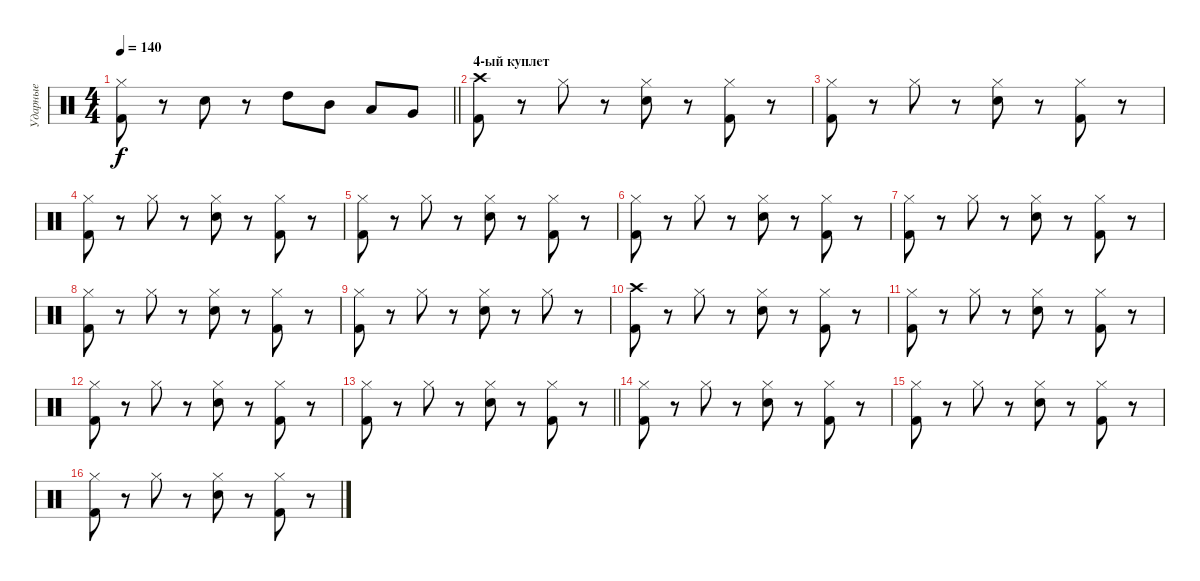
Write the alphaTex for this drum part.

\track ("Ударные" "Ударные") {instrument percussion}
\staff {score}
\articulation defaults
\ts (4 4)
\tempo 140
\clef neutral
\barLineRight lightlight
\ks c
("Kick (hit) 2" "Hi-Hat (closed)").8{dy f} r.8 "Electric Snare (hit)".8 r.8 "High Tom (hit)".8 "Mid Tom (hit)".8 "Low Tom (hit)".8 "Very Low Tom (hit)".8 |
\section ("" "4-ый куплет")
("Kick (hit) 2" "Crash high (hit)").8 r.8 "Hi-Hat (closed)".8 r.8 ("Electric Snare (hit)" "Hi-Hat (closed)").8 r.8 ("Hi-Hat (closed)" "Kick (hit) 2").8 r.8 |
("Kick (hit) 2" "Hi-Hat (closed)").8 r.8 "Hi-Hat (closed)".8 r.8 ("Electric Snare (hit)" "Hi-Hat (closed)").8 r.8 ("Hi-Hat (closed)" "Kick (hit) 2").8 r.8 |
("Kick (hit) 2" "Hi-Hat (closed)").8 r.8 "Hi-Hat (closed)".8 r.8 ("Electric Snare (hit)" "Hi-Hat (closed)").8 r.8 ("Hi-Hat (closed)" "Kick (hit) 2").8 r.8 |
("Kick (hit) 2" "Hi-Hat (closed)").8 r.8 "Hi-Hat (closed)".8 r.8 ("Electric Snare (hit)" "Hi-Hat (closed)").8 r.8 ("Hi-Hat (closed)" "Kick (hit) 2").8 r.8 |
("Kick (hit) 2" "Hi-Hat (closed)").8 r.8 "Hi-Hat (closed)".8 r.8 ("Electric Snare (hit)" "Hi-Hat (closed)").8 r.8 ("Hi-Hat (closed)" "Kick (hit) 2").8 r.8 |
("Kick (hit) 2" "Hi-Hat (closed)").8 r.8 "Hi-Hat (closed)".8 r.8 ("Electric Snare (hit)" "Hi-Hat (closed)").8 r.8 ("Hi-Hat (closed)" "Kick (hit) 2").8 r.8 |
("Kick (hit) 2" "Hi-Hat (closed)").8 r.8 "Hi-Hat (closed)".8 r.8 ("Electric Snare (hit)" "Hi-Hat (closed)").8 r.8 ("Hi-Hat (closed)" "Kick (hit) 2").8 r.8 |
("Kick (hit) 2" "Hi-Hat (closed)").8 r.8 "Hi-Hat (closed)".8 r.8 ("Electric Snare (hit)" "Hi-Hat (closed)").8 r.8 "Hi-Hat (closed)".8 r.8 |
("Kick (hit) 2" "Crash high (hit)").8 r.8 "Hi-Hat (closed)".8 r.8 ("Electric Snare (hit)" "Hi-Hat (closed)").8 r.8 ("Hi-Hat (closed)" "Kick (hit) 2").8 r.8 |
("Kick (hit) 2" "Hi-Hat (closed)").8 r.8 "Hi-Hat (closed)".8 r.8 ("Electric Snare (hit)" "Hi-Hat (closed)").8 r.8 ("Hi-Hat (closed)" "Kick (hit) 2").8 r.8 |
("Kick (hit) 2" "Hi-Hat (closed)").8 r.8 "Hi-Hat (closed)".8 r.8 ("Electric Snare (hit)" "Hi-Hat (closed)").8 r.8 ("Hi-Hat (closed)" "Kick (hit) 2").8 r.8 |
\barLineRight lightlight
("Kick (hit) 2" "Hi-Hat (closed)").8 r.8 "Hi-Hat (closed)".8 r.8 ("Electric Snare (hit)" "Hi-Hat (closed)").8 r.8 ("Hi-Hat (closed)" "Kick (hit) 2").8 r.8 |
("Kick (hit) 2" "Hi-Hat (closed)").8 r.8 "Hi-Hat (closed)".8 r.8 ("Electric Snare (hit)" "Hi-Hat (closed)").8 r.8 ("Hi-Hat (closed)" "Kick (hit) 2").8 r.8 |
("Kick (hit) 2" "Hi-Hat (closed)").8 r.8 "Hi-Hat (closed)".8 r.8 ("Electric Snare (hit)" "Hi-Hat (closed)").8 r.8 ("Hi-Hat (closed)" "Kick (hit) 2").8 r.8 |
("Kick (hit) 2" "Hi-Hat (closed)").8 r.8 "Hi-Hat (closed)".8 r.8 ("Electric Snare (hit)" "Hi-Hat (closed)").8 r.8 ("Hi-Hat (closed)" "Kick (hit) 2").8 r.8
